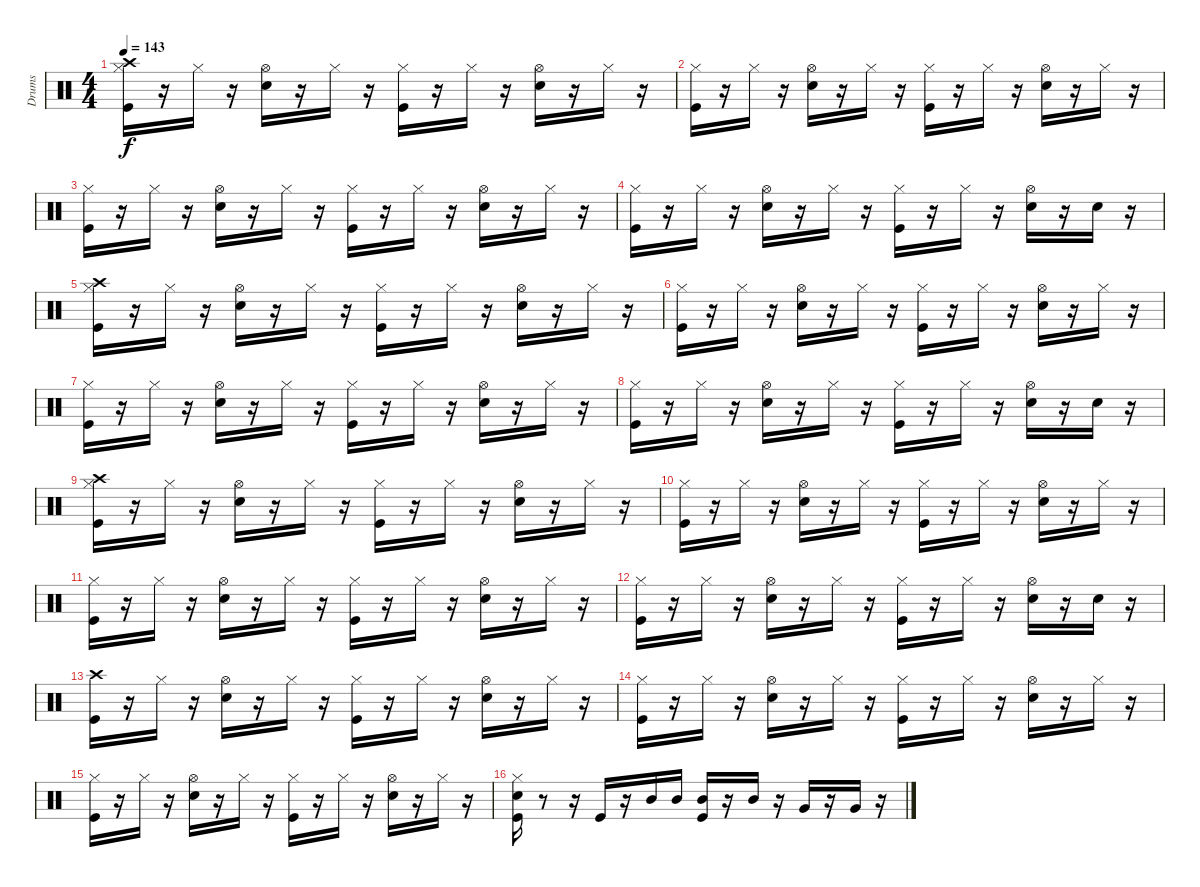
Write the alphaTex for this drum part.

\track ("Drums" "Drums") {instrument percussion}
\staff {score}
\articulation defaults
\ts (4 4)
\tempo 143
\clef neutral
\ks c
("Hi-Hat (closed)" "Kick (hit)" "Crash high (hit)").16{dy f} r.16 "Hi-Hat (closed)".16 r.16 ("Hi-Hat (open)" "Snare (hit) 2").16 r.16 "Hi-Hat (closed)".16 r.16 ("Hi-Hat (closed)" "Kick (hit)").16 r.16 "Hi-Hat (closed)".16 r.16 ("Hi-Hat (open)" "Snare (hit) 2").16 r.16 "Hi-Hat (closed)".16 r.16 |
("Hi-Hat (closed)" "Kick (hit)").16 r.16 "Hi-Hat (closed)".16 r.16 ("Hi-Hat (open)" "Snare (hit) 2").16 r.16 "Hi-Hat (closed)".16 r.16 ("Hi-Hat (closed)" "Kick (hit)").16 r.16 "Hi-Hat (closed)".16 r.16 ("Hi-Hat (open)" "Snare (hit) 2").16 r.16 "Hi-Hat (closed)".16 r.16 |
("Hi-Hat (closed)" "Kick (hit)").16 r.16 "Hi-Hat (closed)".16 r.16 ("Hi-Hat (open)" "Snare (hit) 2").16 r.16 "Hi-Hat (closed)".16 r.16 ("Hi-Hat (closed)" "Kick (hit)").16 r.16 "Hi-Hat (closed)".16 r.16 ("Hi-Hat (open)" "Snare (hit) 2").16 r.16 "Hi-Hat (closed)".16 r.16 |
("Hi-Hat (closed)" "Kick (hit)").16 r.16 "Hi-Hat (closed)".16 r.16 ("Hi-Hat (open)" "Snare (hit) 2").16 r.16 "Hi-Hat (closed)".16 r.16 ("Hi-Hat (closed)" "Kick (hit)").16 r.16 "Hi-Hat (closed)".16 r.16 ("Hi-Hat (open)" "Snare (hit) 2").16 r.16 "Snare (hit) 2".16 r.16 |
("Hi-Hat (closed)" "Kick (hit)" "Crash high (hit)").16 r.16 "Hi-Hat (closed)".16 r.16 ("Hi-Hat (open)" "Snare (hit) 2").16 r.16 "Hi-Hat (closed)".16 r.16 ("Hi-Hat (closed)" "Kick (hit)").16 r.16 "Hi-Hat (closed)".16 r.16 ("Hi-Hat (open)" "Snare (hit) 2").16 r.16 "Hi-Hat (closed)".16 r.16 |
("Hi-Hat (closed)" "Kick (hit)").16 r.16 "Hi-Hat (closed)".16 r.16 ("Hi-Hat (open)" "Snare (hit) 2").16 r.16 "Hi-Hat (closed)".16 r.16 ("Hi-Hat (closed)" "Kick (hit)").16 r.16 "Hi-Hat (closed)".16 r.16 ("Hi-Hat (open)" "Snare (hit) 2").16 r.16 "Hi-Hat (closed)".16 r.16 |
("Hi-Hat (closed)" "Kick (hit)").16 r.16 "Hi-Hat (closed)".16 r.16 ("Hi-Hat (open)" "Snare (hit) 2").16 r.16 "Hi-Hat (closed)".16 r.16 ("Hi-Hat (closed)" "Kick (hit)").16 r.16 "Hi-Hat (closed)".16 r.16 ("Hi-Hat (open)" "Snare (hit) 2").16 r.16 "Hi-Hat (closed)".16 r.16 |
("Hi-Hat (closed)" "Kick (hit)").16 r.16 "Hi-Hat (closed)".16 r.16 ("Hi-Hat (open)" "Snare (hit) 2").16 r.16 "Hi-Hat (closed)".16 r.16 ("Hi-Hat (closed)" "Kick (hit)").16 r.16 "Hi-Hat (closed)".16 r.16 ("Hi-Hat (open)" "Snare (hit) 2").16 r.16 "Snare (hit) 2".16 r.16 |
("Hi-Hat (closed)" "Kick (hit)" "Crash high (hit)").16 r.16 "Hi-Hat (closed)".16 r.16 ("Hi-Hat (open)" "Snare (hit) 2").16 r.16 "Hi-Hat (closed)".16 r.16 ("Hi-Hat (closed)" "Kick (hit)").16 r.16 "Hi-Hat (closed)".16 r.16 ("Hi-Hat (open)" "Snare (hit) 2").16 r.16 "Hi-Hat (closed)".16 r.16 |
("Hi-Hat (closed)" "Kick (hit)").16 r.16 "Hi-Hat (closed)".16 r.16 ("Hi-Hat (open)" "Snare (hit) 2").16 r.16 "Hi-Hat (closed)".16 r.16 ("Hi-Hat (closed)" "Kick (hit)").16 r.16 "Hi-Hat (closed)".16 r.16 ("Hi-Hat (open)" "Snare (hit) 2").16 r.16 "Hi-Hat (closed)".16 r.16 |
("Hi-Hat (closed)" "Kick (hit)").16 r.16 "Hi-Hat (closed)".16 r.16 ("Hi-Hat (open)" "Snare (hit) 2").16 r.16 "Hi-Hat (closed)".16 r.16 ("Hi-Hat (closed)" "Kick (hit)").16 r.16 "Hi-Hat (closed)".16 r.16 ("Hi-Hat (open)" "Snare (hit) 2").16 r.16 "Hi-Hat (closed)".16 r.16 |
("Hi-Hat (closed)" "Kick (hit)").16 r.16 "Hi-Hat (closed)".16 r.16 ("Hi-Hat (open)" "Snare (hit) 2").16 r.16 "Hi-Hat (closed)".16 r.16 ("Hi-Hat (closed)" "Kick (hit)").16 r.16 "Hi-Hat (closed)".16 r.16 ("Hi-Hat (open)" "Snare (hit) 2").16 r.16 "Snare (hit) 2".16 r.16 |
("Kick (hit)" "Crash high (hit)").16 r.16 "Hi-Hat (closed)".16 r.16 ("Hi-Hat (open)" "Snare (hit) 2").16 r.16 "Hi-Hat (closed)".16 r.16 ("Hi-Hat (closed)" "Kick (hit)").16 r.16 "Hi-Hat (closed)".16 r.16 ("Hi-Hat (open)" "Snare (hit) 2").16 r.16 "Hi-Hat (closed)".16 r.16 |
("Hi-Hat (closed)" "Kick (hit)").16 r.16 "Hi-Hat (closed)".16 r.16 ("Hi-Hat (open)" "Snare (hit) 2").16 r.16 "Hi-Hat (closed)".16 r.16 ("Hi-Hat (closed)" "Kick (hit)").16 r.16 "Hi-Hat (closed)".16 r.16 ("Hi-Hat (open)" "Snare (hit) 2").16 r.16 "Hi-Hat (closed)".16 r.16 |
("Hi-Hat (closed)" "Kick (hit)").16 r.16 "Hi-Hat (closed)".16 r.16 ("Hi-Hat (open)" "Snare (hit) 2").16 r.16 "Hi-Hat (closed)".16 r.16 ("Hi-Hat (closed)" "Kick (hit)").16 r.16 "Hi-Hat (closed)".16 r.16 ("Hi-Hat (open)" "Snare (hit) 2").16 r.16 "Hi-Hat (closed)".16 r.16 |
("Hi-Hat (closed)" "Kick (hit)" "Snare (hit) 2").16 r.8 r.16 "Kick (hit)".16 r.16 "Mid Tom (hit)".16 "Mid Tom (hit)".16 ("Kick (hit)" "Mid Tom (hit)").16 r.16 "Mid Tom (hit)".16 r.16 "Very Low Tom (hit)".16 r.16 "Very Low Tom (hit)".16 r.16
